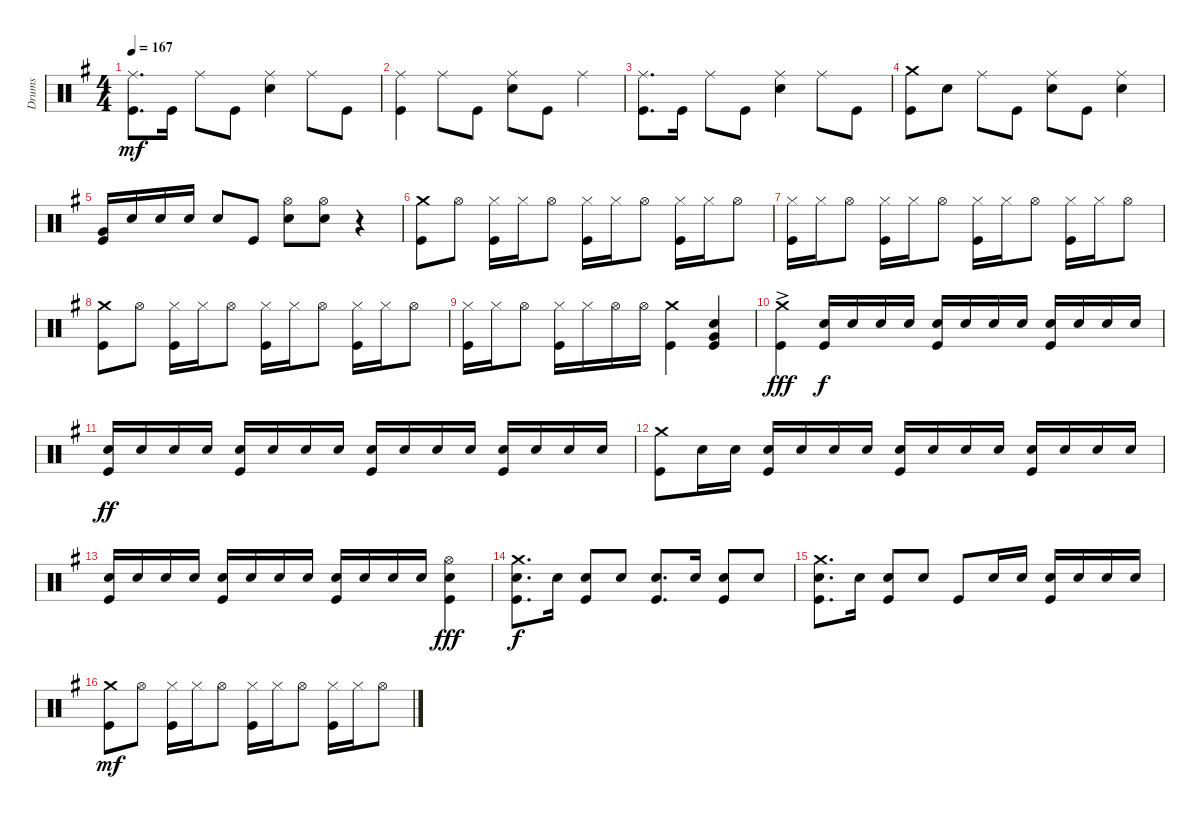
\track ("Drums" "Drums") {instrument percussion}
\staff {score}
\articulation defaults
\ts (4 4)
\tempo 167
\clef neutral
\ks eminor
("Kick (hit)" "Ride (middle)").8{d dy mf} "Kick (hit)".16 "Ride (middle)".8 "Kick (hit)".8 ("Ride (middle)" "Snare (hit) 2").4 "Ride (middle)".8 "Kick (hit)".8 |
("Ride (middle)" "Kick (hit)").4 "Ride (middle)".8 "Kick (hit)".8 ("Ride (middle)" "Snare (hit) 2").8 "Kick (hit)".8 "Ride (middle)".4 |
("Kick (hit)" "Ride (middle)").8{d} "Kick (hit)".16 "Ride (middle)".8 "Kick (hit)".8 ("Ride (middle)" "Snare (hit) 2").4 "Ride (middle)".8 "Kick (hit)".8 |
("Kick (hit)" "Crash medium (hit)").8 "Snare (hit) 2".8 "Ride (middle)".8 "Kick (hit)".8 ("Ride (middle)" "Snare (hit) 2").8 "Kick (hit)".8 ("Ride (middle)" "Snare (hit) 2").4 |
("Kick (hit)" "Very Low Tom (hit)").16 "Snare (hit) 2".16 "Snare (hit) 2".16 "Snare (hit) 2".16 "Snare (hit) 2".8 "Kick (hit)".8 ("Snare (hit) 2" "Hi-Hat (open)").8 ("Hi-Hat (open)" "Snare (hit) 2").8 r.4 |
("Kick (hit)" "Crash medium (hit)").8 "Hi-Hat (open)".8 ("Kick (hit)" "Hi-Hat (closed)").16 "Hi-Hat (closed)".16 "Hi-Hat (open)".8 ("Kick (hit)" "Hi-Hat (closed)").16 "Hi-Hat (closed)".16 "Hi-Hat (open)".8 ("Kick (hit)" "Hi-Hat (closed)").16 "Hi-Hat (closed)".16 "Hi-Hat (open)".8 |
("Kick (hit)" "Hi-Hat (closed)").16 "Hi-Hat (closed)".16 "Hi-Hat (open)".8 ("Kick (hit)" "Hi-Hat (closed)").16 "Hi-Hat (closed)".16 "Hi-Hat (open)".8 ("Kick (hit)" "Hi-Hat (closed)").16 "Hi-Hat (closed)".16 "Hi-Hat (open)".8 ("Kick (hit)" "Hi-Hat (closed)").16 "Hi-Hat (closed)".16 "Hi-Hat (open)".8 |
("Kick (hit)" "Crash medium (hit)").8 "Hi-Hat (open)".8 ("Kick (hit)" "Hi-Hat (closed)").16 "Hi-Hat (closed)".16 "Hi-Hat (open)".8 ("Kick (hit)" "Hi-Hat (closed)").16 "Hi-Hat (closed)".16 "Hi-Hat (open)".8 ("Kick (hit)" "Hi-Hat (closed)").16 "Hi-Hat (closed)".16 "Hi-Hat (open)".8 |
("Hi-Hat (closed)" "Kick (hit)").16 "Hi-Hat (closed)".16 "Hi-Hat (open)".8 ("Hi-Hat (closed)" "Kick (hit)").16 "Hi-Hat (closed)".16 "Hi-Hat (open)".16 "Hi-Hat (open)".16 ("Crash medium (hit)" "Kick (hit)").4 ("Kick (hit)" "Very Low Tom (hit)" "Snare (hit) 2").4 |
("Crash medium (hit)"{ac} "Kick (hit)"{ac}).4{dy fff} ("Kick (hit)" "Snare (hit) 2").16{dy f} "Snare (hit) 2".16 "Snare (hit) 2".16 "Snare (hit) 2".16 ("Snare (hit) 2" "Kick (hit)").16 "Snare (hit) 2".16 "Snare (hit) 2".16 "Snare (hit) 2".16 ("Snare (hit) 2" "Kick (hit)").16 "Snare (hit) 2".16 "Snare (hit) 2".16 "Snare (hit) 2".16 |
("Kick (hit)" "Snare (hit) 2").16{dy ff} "Snare (hit) 2".16 "Snare (hit) 2".16 "Snare (hit) 2".16 ("Snare (hit) 2" "Kick (hit)").16 "Snare (hit) 2".16 "Snare (hit) 2".16 "Snare (hit) 2".16 ("Snare (hit) 2" "Kick (hit)").16 "Snare (hit) 2".16 "Snare (hit) 2".16 "Snare (hit) 2".16 ("Kick (hit)" "Snare (hit) 2").16 "Snare (hit) 2".16 "Snare (hit) 2".16 "Snare (hit) 2".16 |
("Crash medium (hit)" "Kick (hit)").8 "Snare (hit) 2".16 "Snare (hit) 2".16 ("Kick (hit)" "Snare (hit) 2").16 "Snare (hit) 2".16 "Snare (hit) 2".16 "Snare (hit) 2".16 ("Snare (hit) 2" "Kick (hit)").16 "Snare (hit) 2".16 "Snare (hit) 2".16 "Snare (hit) 2".16 ("Snare (hit) 2" "Kick (hit)").16 "Snare (hit) 2".16 "Snare (hit) 2".16 "Snare (hit) 2".16 |
("Kick (hit)" "Snare (hit) 2").16 "Snare (hit) 2".16 "Snare (hit) 2".16 "Snare (hit) 2".16 ("Snare (hit) 2" "Kick (hit)").16 "Snare (hit) 2".16 "Snare (hit) 2".16 "Snare (hit) 2".16 ("Snare (hit) 2" "Kick (hit)").16 "Snare (hit) 2".16 "Snare (hit) 2".16 "Snare (hit) 2".16 ("Snare (hit) 2" "Hi-Hat (open)" "Kick (hit)").4{dy fff} |
("Crash medium (hit)" "Snare (hit) 2" "Kick (hit)").8{d dy f} "Snare (hit) 2".16 ("Snare (hit) 2" "Kick (hit)").8 "Snare (hit) 2".8 ("Snare (hit) 2" "Kick (hit)").8{d} "Snare (hit) 2".16 ("Kick (hit)" "Snare (hit) 2").8 "Snare (hit) 2".8 |
("Crash medium (hit)" "Snare (hit) 2" "Kick (hit)").8{d} "Snare (hit) 2".16 ("Snare (hit) 2" "Kick (hit)").8 "Snare (hit) 2".8 "Kick (hit)".8 "Snare (hit) 2".16 "Snare (hit) 2".16 ("Snare (hit) 2" "Kick (hit)").16 "Snare (hit) 2".16 "Snare (hit) 2".16 "Snare (hit) 2".16 |
("Kick (hit)" "Crash medium (hit)").8{dy mf} "Hi-Hat (open)".8 ("Hi-Hat (closed)" "Kick (hit)").16 "Hi-Hat (closed)".16 "Hi-Hat (open)".8 ("Kick (hit)" "Hi-Hat (closed)").16 "Hi-Hat (closed)".16 "Hi-Hat (open)".8 ("Hi-Hat (closed)" "Kick (hit)").16 "Hi-Hat (closed)".16 "Hi-Hat (open)".8
